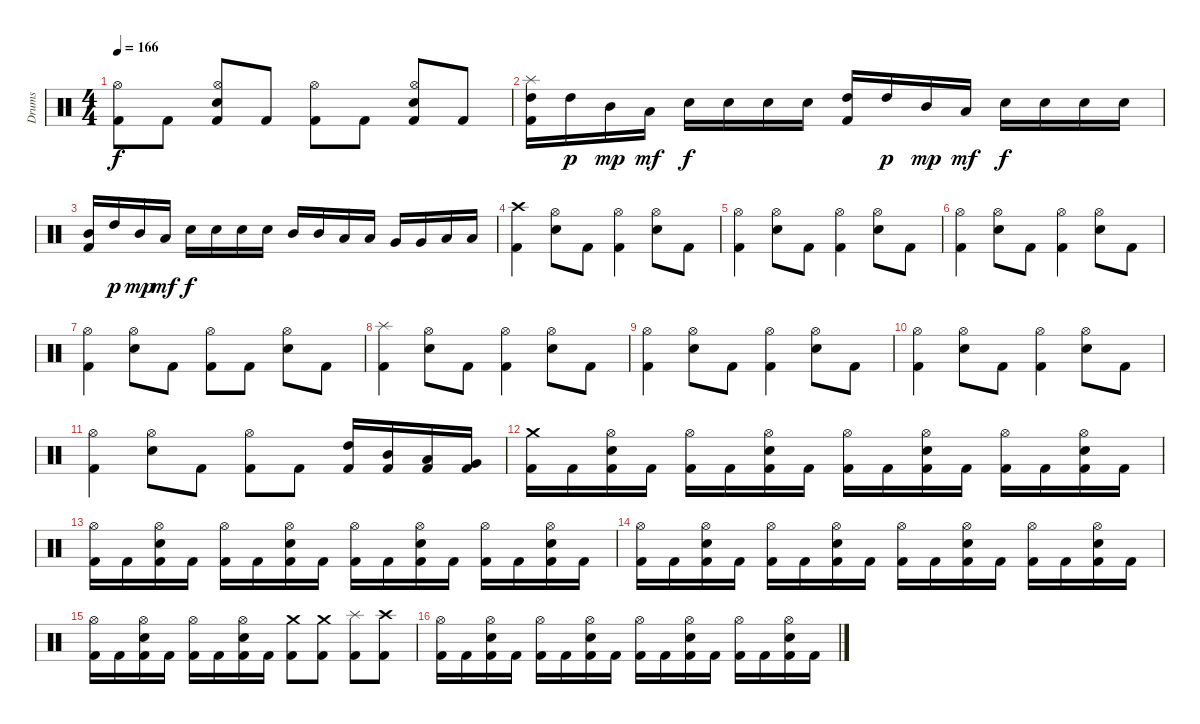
\track ("Drums" "Drums") {instrument percussion}
\staff {score}
\articulation defaults
\ts (4 4)
\tempo 166
\clef neutral
\ks c
("Kick (hit) 2" "Hi-Hat (open)").8{dy f} "Kick (hit) 2".8 ("Kick (hit) 2" "Electric Snare (hit)" "Hi-Hat (open)").8 "Kick (hit) 2".8 ("Kick (hit) 2" "Hi-Hat (open)").8 "Kick (hit) 2".8 ("Kick (hit) 2" "Electric Snare (hit)" "Hi-Hat (open)").8 "Kick (hit) 2".8 |
("Kick (hit) 2" "High Tom (hit)" "Splash (hit)").16 "High Tom (hit)".16{dy p} "Mid Tom (hit)".16{dy mp} "Low Tom (hit)".16{dy mf} "Electric Snare (hit)".16{dy f} "Electric Snare (hit)".16 "Electric Snare (hit)".16 "Electric Snare (hit)".16 ("Kick (hit) 2" "High Tom (hit)").16 "High Tom (hit)".16{dy p} "Mid Tom (hit)".16{dy mp} "Low Tom (hit)".16{dy mf} "Electric Snare (hit)".16{dy f} "Electric Snare (hit)".16 "Electric Snare (hit)".16 "Electric Snare (hit)".16 |
("Kick (hit) 2" "Mid Tom (hit)").16 "High Tom (hit)".16{dy p} "Mid Tom (hit)".16{dy mp} "Low Tom (hit)".16{dy mf} "Electric Snare (hit)".16{dy f} "Electric Snare (hit)".16 "Electric Snare (hit)".16 "Electric Snare (hit)".16 "Mid Tom (hit)".16 "Mid Tom (hit)".16 "Low Tom (hit)".16 "Low Tom (hit)".16 "Very Low Tom (hit)".16 "Very Low Tom (hit)".16 "Low Floor Tom (hit)".16 "Low Floor Tom (hit)".16 |
\section ("" "")
("Kick (hit) 2" "Crash high (hit)").4 ("Electric Snare (hit)" "Hi-Hat (open)").8 "Kick (hit) 2".8 ("Kick (hit) 2" "Hi-Hat (open)").4 ("Electric Snare (hit)" "Hi-Hat (open)").8 "Kick (hit) 2".8 |
("Kick (hit) 2" "Hi-Hat (open)").4 ("Electric Snare (hit)" "Hi-Hat (open)").8 "Kick (hit) 2".8 ("Kick (hit) 2" "Hi-Hat (open)").4 ("Electric Snare (hit)" "Hi-Hat (open)").8 "Kick (hit) 2".8 |
("Kick (hit) 2" "Hi-Hat (open)").4 ("Electric Snare (hit)" "Hi-Hat (open)").8 "Kick (hit) 2".8 ("Kick (hit) 2" "Hi-Hat (open)").4 ("Electric Snare (hit)" "Hi-Hat (open)").8 "Kick (hit) 2".8 |
("Kick (hit) 2" "Hi-Hat (open)").4 ("Electric Snare (hit)" "Hi-Hat (open)").8 "Kick (hit) 2".8 ("Kick (hit) 2" "Hi-Hat (open)").8 "Kick (hit) 2".8 ("Electric Snare (hit)" "Hi-Hat (open)").8 "Kick (hit) 2".8 |
("Kick (hit) 2" "Splash (hit)").4 ("Electric Snare (hit)" "Hi-Hat (open)").8 "Kick (hit) 2".8 ("Kick (hit) 2" "Hi-Hat (open)").4 ("Electric Snare (hit)" "Hi-Hat (open)").8 "Kick (hit) 2".8 |
("Kick (hit) 2" "Hi-Hat (open)").4 ("Electric Snare (hit)" "Hi-Hat (open)").8 "Kick (hit) 2".8 ("Kick (hit) 2" "Hi-Hat (open)").4 ("Electric Snare (hit)" "Hi-Hat (open)").8 "Kick (hit) 2".8 |
("Kick (hit) 2" "Hi-Hat (open)").4 ("Electric Snare (hit)" "Hi-Hat (open)").8 "Kick (hit) 2".8 ("Kick (hit) 2" "Hi-Hat (open)").4 ("Electric Snare (hit)" "Hi-Hat (open)").8 "Kick (hit) 2".8 |
("Kick (hit) 2" "Hi-Hat (open)").4 ("Electric Snare (hit)" "Hi-Hat (open)").8 "Kick (hit) 2".8 ("Kick (hit) 2" "Hi-Hat (open)").8 "Kick (hit) 2".8 ("Kick (hit) 2" "High Tom (hit)").16 ("Kick (hit) 2" "Mid Tom (hit)").16 ("Kick (hit) 2" "Low Tom (hit)").16 ("Kick (hit) 2" "Very Low Tom (hit)").16 |
\section ("" "")
("Kick (hit) 2" "Crash medium (hit)").16 "Kick (hit) 2".16 ("Kick (hit) 2" "Electric Snare (hit)" "Hi-Hat (open)").16 "Kick (hit) 2".16 ("Kick (hit) 2" "Hi-Hat (open)").16 "Kick (hit) 2".16 ("Kick (hit) 2" "Electric Snare (hit)" "Hi-Hat (open)").16 "Kick (hit) 2".16 ("Kick (hit) 2" "Hi-Hat (open)").16 "Kick (hit) 2".16 ("Kick (hit) 2" "Electric Snare (hit)" "Hi-Hat (open)").16 "Kick (hit) 2".16 ("Kick (hit) 2" "Hi-Hat (open)").16 "Kick (hit) 2".16 ("Kick (hit) 2" "Electric Snare (hit)" "Hi-Hat (open)").16 "Kick (hit) 2".16 |
("Kick (hit) 2" "Hi-Hat (open)").16 "Kick (hit) 2".16 ("Kick (hit) 2" "Electric Snare (hit)" "Hi-Hat (open)").16 "Kick (hit) 2".16 ("Kick (hit) 2" "Hi-Hat (open)").16 "Kick (hit) 2".16 ("Kick (hit) 2" "Electric Snare (hit)" "Hi-Hat (open)").16 "Kick (hit) 2".16 ("Kick (hit) 2" "Hi-Hat (open)").16 "Kick (hit) 2".16 ("Kick (hit) 2" "Electric Snare (hit)" "Hi-Hat (open)").16 "Kick (hit) 2".16 ("Kick (hit) 2" "Hi-Hat (open)").16 "Kick (hit) 2".16 ("Kick (hit) 2" "Electric Snare (hit)" "Hi-Hat (open)").16 "Kick (hit) 2".16 |
("Kick (hit) 2" "Hi-Hat (open)").16 "Kick (hit) 2".16 ("Kick (hit) 2" "Electric Snare (hit)" "Hi-Hat (open)").16 "Kick (hit) 2".16 ("Kick (hit) 2" "Hi-Hat (open)").16 "Kick (hit) 2".16 ("Kick (hit) 2" "Electric Snare (hit)" "Hi-Hat (open)").16 "Kick (hit) 2".16 ("Kick (hit) 2" "Hi-Hat (open)").16 "Kick (hit) 2".16 ("Kick (hit) 2" "Electric Snare (hit)" "Hi-Hat (open)").16 "Kick (hit) 2".16 ("Kick (hit) 2" "Hi-Hat (open)").16 "Kick (hit) 2".16 ("Kick (hit) 2" "Electric Snare (hit)" "Hi-Hat (open)").16 "Kick (hit) 2".16 |
("Kick (hit) 2" "Hi-Hat (open)").16 "Kick (hit) 2".16 ("Kick (hit) 2" "Electric Snare (hit)" "Hi-Hat (open)").16 "Kick (hit) 2".16 ("Kick (hit) 2" "Hi-Hat (open)").16 "Kick (hit) 2".16 ("Kick (hit) 2" "Electric Snare (hit)" "Hi-Hat (open)").16 "Kick (hit) 2".16 ("Kick (hit) 2" "Crash medium (hit)").8 ("Kick (hit) 2" "Crash medium (hit)").8 ("Kick (hit) 2" "Splash (hit)").8 ("Kick (hit) 2" "Crash high (hit)").8 |
("Kick (hit) 2" "Hi-Hat (open)").16 "Kick (hit) 2".16 ("Kick (hit) 2" "Electric Snare (hit)" "Hi-Hat (open)").16 "Kick (hit) 2".16 ("Kick (hit) 2" "Hi-Hat (open)").16 "Kick (hit) 2".16 ("Kick (hit) 2" "Electric Snare (hit)" "Hi-Hat (open)").16 "Kick (hit) 2".16 ("Kick (hit) 2" "Hi-Hat (open)").16 "Kick (hit) 2".16 ("Kick (hit) 2" "Electric Snare (hit)" "Hi-Hat (open)").16 "Kick (hit) 2".16 ("Kick (hit) 2" "Hi-Hat (open)").16 "Kick (hit) 2".16 ("Kick (hit) 2" "Electric Snare (hit)" "Hi-Hat (open)").16 "Kick (hit) 2".16
